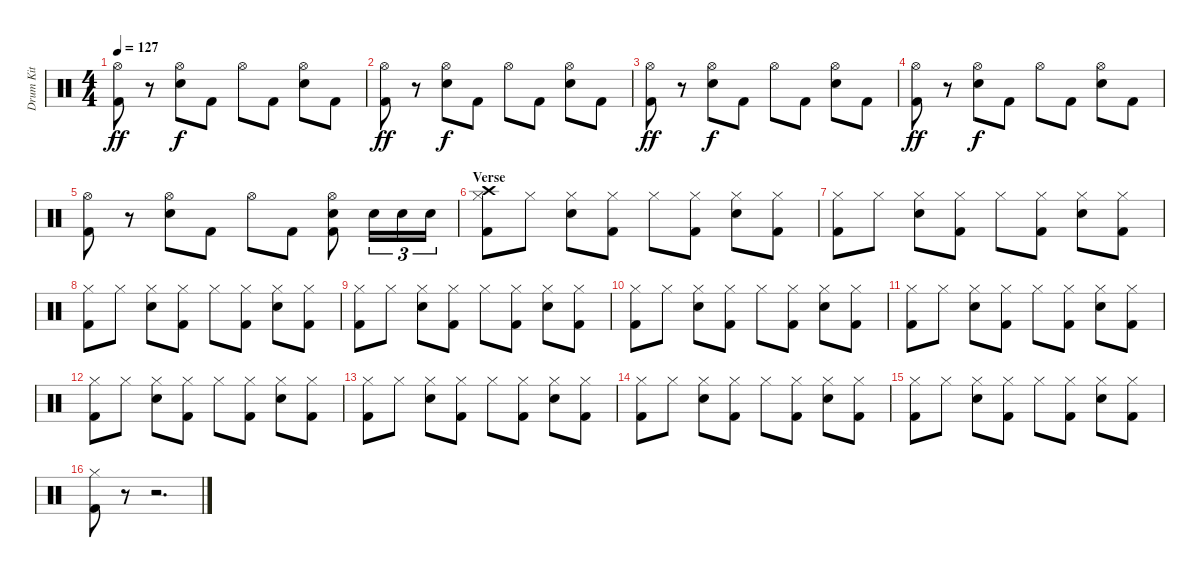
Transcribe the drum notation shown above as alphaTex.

\track ("Drum Kit" "Drum Kit") {instrument percussion}
\staff {score}
\articulation defaults
\ts (4 4)
\tempo 127
\clef neutral
\ks c
("Hi-Hat (open)" "Kick (hit) 2").8{dy ff} r.8 ("Hi-Hat (open)" "Electric Snare (hit)").8{dy f} "Kick (hit) 2".8 "Hi-Hat (open)".8 "Kick (hit) 2".8 ("Hi-Hat (open)" "Electric Snare (hit)").8 "Kick (hit) 2".8 |
("Hi-Hat (open)" "Kick (hit) 2").8{dy ff} r.8 ("Hi-Hat (open)" "Electric Snare (hit)").8{dy f} "Kick (hit) 2".8 "Hi-Hat (open)".8 "Kick (hit) 2".8 ("Hi-Hat (open)" "Electric Snare (hit)").8 "Kick (hit) 2".8 |
("Hi-Hat (open)" "Kick (hit) 2").8{dy ff} r.8 ("Hi-Hat (open)" "Electric Snare (hit)").8{dy f} "Kick (hit) 2".8 "Hi-Hat (open)".8 "Kick (hit) 2".8 ("Hi-Hat (open)" "Electric Snare (hit)").8 "Kick (hit) 2".8 |
("Hi-Hat (open)" "Kick (hit) 2").8{dy ff} r.8 ("Hi-Hat (open)" "Electric Snare (hit)").8{dy f} "Kick (hit) 2".8 "Hi-Hat (open)".8 "Kick (hit) 2".8 ("Hi-Hat (open)" "Electric Snare (hit)").8 "Kick (hit) 2".8 |
("Hi-Hat (open)" "Kick (hit) 2").8 r.8 ("Hi-Hat (open)" "Electric Snare (hit)").8 "Kick (hit) 2".8 "Hi-Hat (open)".8 "Kick (hit) 2".8 ("Hi-Hat (open)" "Electric Snare (hit)" "Kick (hit) 2").8 "Electric Snare (hit)".16{tu (3 2)} "Electric Snare (hit)".16{tu (3 2)} "Electric Snare (hit)".16{tu (3 2)} |
\section ("" "Verse")
("Crash high (hit)" "Hi-Hat (closed)" "Kick (hit) 2").8 "Hi-Hat (closed)".8 ("Hi-Hat (closed)" "Electric Snare (hit)").8 ("Hi-Hat (closed)" "Kick (hit) 2").8 "Hi-Hat (closed)".8 ("Hi-Hat (closed)" "Kick (hit) 2").8 ("Hi-Hat (closed)" "Electric Snare (hit)").8 ("Hi-Hat (closed)" "Kick (hit) 2").8 |
("Hi-Hat (closed)" "Kick (hit) 2").8 "Hi-Hat (closed)".8 ("Hi-Hat (closed)" "Electric Snare (hit)").8 ("Hi-Hat (closed)" "Kick (hit) 2").8 "Hi-Hat (closed)".8 ("Hi-Hat (closed)" "Kick (hit) 2").8 ("Hi-Hat (closed)" "Electric Snare (hit)").8 ("Hi-Hat (closed)" "Kick (hit) 2").8 |
("Hi-Hat (closed)" "Kick (hit) 2").8 "Hi-Hat (closed)".8 ("Hi-Hat (closed)" "Electric Snare (hit)").8 ("Hi-Hat (closed)" "Kick (hit) 2").8 "Hi-Hat (closed)".8 ("Hi-Hat (closed)" "Kick (hit) 2").8 ("Hi-Hat (closed)" "Electric Snare (hit)").8 ("Hi-Hat (closed)" "Kick (hit) 2").8 |
("Hi-Hat (closed)" "Kick (hit) 2").8 "Hi-Hat (closed)".8 ("Hi-Hat (closed)" "Electric Snare (hit)").8 ("Hi-Hat (closed)" "Kick (hit) 2").8 "Hi-Hat (closed)".8 ("Hi-Hat (closed)" "Kick (hit) 2").8 ("Hi-Hat (closed)" "Electric Snare (hit)").8 ("Hi-Hat (closed)" "Kick (hit) 2").8 |
("Hi-Hat (closed)" "Kick (hit) 2").8 "Hi-Hat (closed)".8 ("Hi-Hat (closed)" "Electric Snare (hit)").8 ("Hi-Hat (closed)" "Kick (hit) 2").8 "Hi-Hat (closed)".8 ("Hi-Hat (closed)" "Kick (hit) 2").8 ("Hi-Hat (closed)" "Electric Snare (hit)").8 ("Hi-Hat (closed)" "Kick (hit) 2").8 |
("Hi-Hat (closed)" "Kick (hit) 2").8 "Hi-Hat (closed)".8 ("Hi-Hat (closed)" "Electric Snare (hit)").8 ("Hi-Hat (closed)" "Kick (hit) 2").8 "Hi-Hat (closed)".8 ("Hi-Hat (closed)" "Kick (hit) 2").8 ("Hi-Hat (closed)" "Electric Snare (hit)").8 ("Hi-Hat (closed)" "Kick (hit) 2").8 |
("Hi-Hat (closed)" "Kick (hit) 2").8 "Hi-Hat (closed)".8 ("Hi-Hat (closed)" "Electric Snare (hit)").8 ("Hi-Hat (closed)" "Kick (hit) 2").8 "Hi-Hat (closed)".8 ("Hi-Hat (closed)" "Kick (hit) 2").8 ("Hi-Hat (closed)" "Electric Snare (hit)").8 ("Hi-Hat (closed)" "Kick (hit) 2").8 |
("Hi-Hat (closed)" "Kick (hit) 2").8 "Hi-Hat (closed)".8 ("Hi-Hat (closed)" "Electric Snare (hit)").8 ("Hi-Hat (closed)" "Kick (hit) 2").8 "Hi-Hat (closed)".8 ("Hi-Hat (closed)" "Kick (hit) 2").8 ("Hi-Hat (closed)" "Electric Snare (hit)").8 ("Hi-Hat (closed)" "Kick (hit) 2").8 |
("Hi-Hat (closed)" "Kick (hit) 2").8 "Hi-Hat (closed)".8 ("Hi-Hat (closed)" "Electric Snare (hit)").8 ("Hi-Hat (closed)" "Kick (hit) 2").8 "Hi-Hat (closed)".8 ("Hi-Hat (closed)" "Kick (hit) 2").8 ("Hi-Hat (closed)" "Electric Snare (hit)").8 ("Hi-Hat (closed)" "Kick (hit) 2").8 |
("Hi-Hat (closed)" "Kick (hit) 2").8 "Hi-Hat (closed)".8 ("Hi-Hat (closed)" "Electric Snare (hit)").8 ("Hi-Hat (closed)" "Kick (hit) 2").8 "Hi-Hat (closed)".8 ("Hi-Hat (closed)" "Kick (hit) 2").8 ("Hi-Hat (closed)" "Electric Snare (hit)").8 ("Hi-Hat (closed)" "Kick (hit) 2").8 |
("Hi-Hat (closed)" "Kick (hit) 2").8 r.8 r.2{d}
